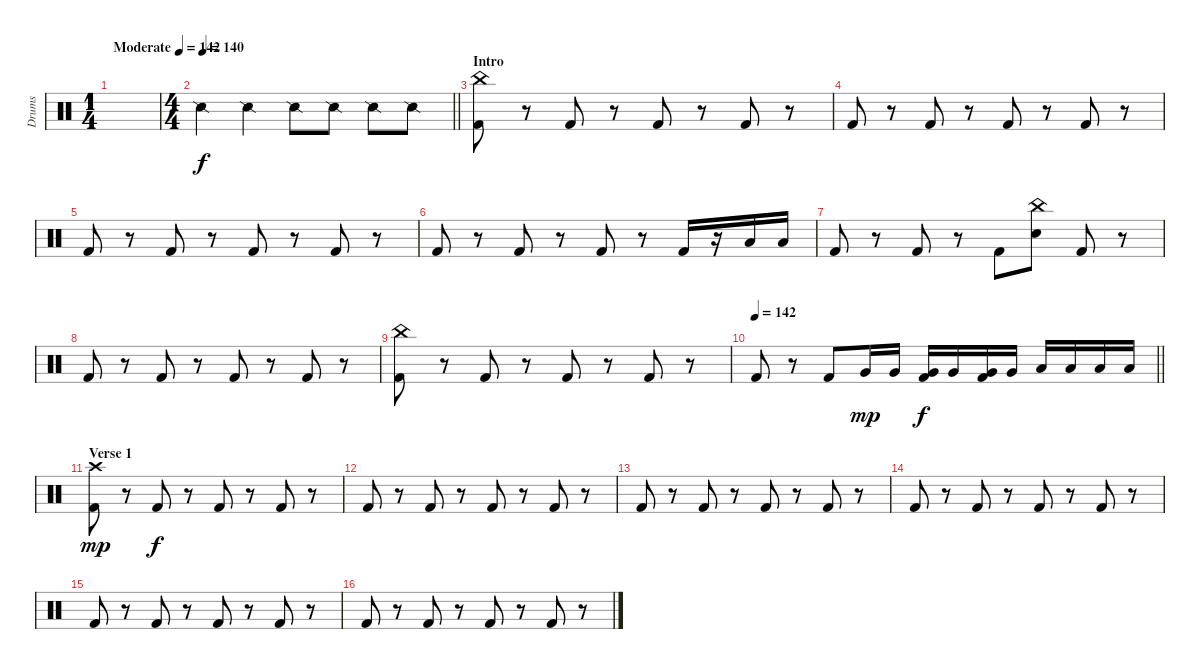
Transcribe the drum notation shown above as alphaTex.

\track ("Drums" "Drums") {instrument percussion}
\staff {score}
\articulation defaults
\ts (1 4)
\tempo (142 "Moderate")
\clef neutral
\ks c
|
\ts (4 4)
\tempo 140
\barLineRight lightlight "Snare (side stick) 2".4 "Snare (side stick) 2".4 "Snare (side stick) 2".8 "Snare (side stick) 2".8 "Snare (side stick) 2".8 "Snare (side stick) 2".8
|
\section ("" "Intro")
("China (hit)" "Kick (hit) 2").8 r.8 "Kick (hit) 2".8 r.8 "Kick (hit) 2".8 r.8 "Kick (hit) 2".8 r.8 |
"Kick (hit) 2".8 r.8 "Kick (hit) 2".8 r.8 "Kick (hit) 2".8 r.8 "Kick (hit) 2".8 r.8 |
"Kick (hit) 2".8 r.8 "Kick (hit) 2".8 r.8 "Kick (hit) 2".8 r.8 "Kick (hit) 2".8 r.8 |
"Kick (hit) 2".8 r.8 "Kick (hit) 2".8 r.8 "Kick (hit) 2".8 r.8 "Kick (hit) 2".16 r.16 "Low Tom (hit)".16 "Low Tom (hit)".16 |
"Kick (hit) 2".8 r.8 "Kick (hit) 2".8 r.8 "Kick (hit) 2".8 ("China (hit)" "Snare (hit) 2").8 "Kick (hit) 2".8 r.8 |
"Kick (hit) 2".8 r.8 "Kick (hit) 2".8 r.8 "Kick (hit) 2".8 r.8 "Kick (hit) 2".8 r.8 |
("China (hit)" "Kick (hit) 2").8 r.8 "Kick (hit) 2".8 r.8 "Kick (hit) 2".8 r.8 "Kick (hit) 2".8 r.8 |
\tempo 142
\barLineRight lightlight "Kick (hit) 2".8
r.8 "Kick (hit) 2".8 "Very Low Tom (hit)".16{dy mp} "Very Low Tom (hit)".16 ("Very Low Tom (hit)" "Kick (hit) 2").16{dy f} "Very Low Tom (hit)".16 ("Very Low Tom (hit)" "Kick (hit) 2").16 "Very Low Tom (hit)".16 "Low Floor Tom (hit)".16 "Low Floor Tom (hit)".16 "Low Floor Tom (hit)".16 "Low Floor Tom (hit)".16 |
\section ("" "Verse 1")
("Crash high (hit)" "Kick (hit) 2").8{dy mp} r.8 "Kick (hit) 2".8{dy f} r.8 "Kick (hit) 2".8 r.8 "Kick (hit) 2".8 r.8 |
"Kick (hit) 2".8 r.8 "Kick (hit) 2".8 r.8 "Kick (hit) 2".8 r.8 "Kick (hit) 2".8 r.8 |
"Kick (hit) 2".8 r.8 "Kick (hit) 2".8 r.8 "Kick (hit) 2".8 r.8 "Kick (hit) 2".8 r.8 |
"Kick (hit) 2".8 r.8 "Kick (hit) 2".8 r.8 "Kick (hit) 2".8 r.8 "Kick (hit) 2".8 r.8 |
"Kick (hit) 2".8 r.8 "Kick (hit) 2".8 r.8 "Kick (hit) 2".8 r.8 "Kick (hit) 2".8 r.8 |
"Kick (hit) 2".8 r.8 "Kick (hit) 2".8 r.8 "Kick (hit) 2".8 r.8 "Kick (hit) 2".8 r.8
